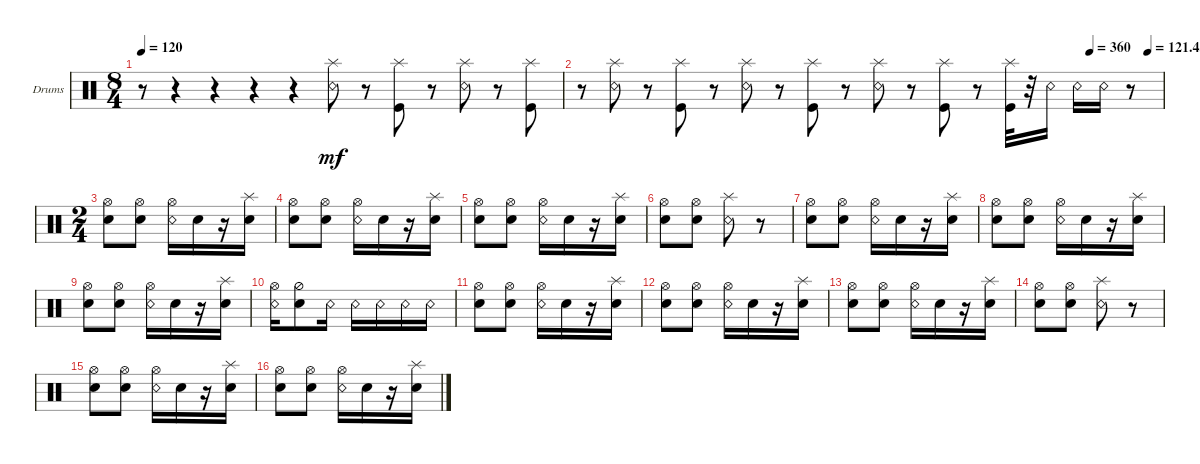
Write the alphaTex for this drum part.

\bracketExtendMode groupsimilarinstruments
\firstSystemTrackNameOrientation horizontal
\otherSystemsTrackNameOrientation horizontal
\track ("Drumkit" "Drums") {instrument percussion}
\staff {score}
\articulation defaults
\ts (8 4)
\tempo 120
\clef neutral
\ks c
r.8{dy mf} r.4 r.4 r.4 r.4 ("Snare (rim shot)" "Splash (hit)").8 r.8 ("Splash (hit)" "Kick (hit)").8 r.8 ("Splash (hit)" "Snare (rim shot)").8 r.8 ("Kick (hit)" "Splash (hit)").8 |
\tempo (360 0.875)
\tempo (121.435 0.975)
r.8 ("Splash (hit)" "Snare (rim shot)").8 r.8 ("Splash (hit)" "Kick (hit)").8 r.8 ("Splash (hit)" "Snare (rim shot)").8 r.8 ("Splash (hit)" "Kick (hit)").8 r.8 ("Splash (hit)" "Snare (rim shot)").8 r.8 ("Splash (hit)" "Kick (hit)").8 r.8 ("Splash (hit)" "Kick (hit)").32 r.32 "Snare (rim shot)".16 "Snare (rim shot)".16 "Snare (rim shot)".16 r.8 |
\ts (2 4)
("Snare (hit) 2" "Hi-Hat (open)").8 ("Snare (hit) 2" "Hi-Hat (open)").8 ("Snare (rim shot)" "Hi-Hat (open)").16 "Snare (hit) 2".16 r.16 ("Snare (hit) 2" "Splash (hit)").16 |
("Snare (hit) 2" "Hi-Hat (open)").8 ("Snare (hit) 2" "Hi-Hat (open)").8 ("Snare (rim shot)" "Hi-Hat (open)").16 "Snare (hit) 2".16 r.16 ("Snare (hit) 2" "Splash (hit)").16 |
("Snare (hit) 2" "Hi-Hat (open)").8 ("Snare (hit) 2" "Hi-Hat (open)").8 ("Snare (rim shot)" "Hi-Hat (open)").16 "Snare (hit) 2".16 r.16 ("Snare (hit) 2" "Splash (hit)").16 |
("Snare (hit) 2" "Hi-Hat (open)").8 ("Snare (hit) 2" "Hi-Hat (open)").8 ("Snare (rim shot)" "Splash (hit)").8 r.8 |
("Snare (hit) 2" "Hi-Hat (open)").8 ("Snare (hit) 2" "Hi-Hat (open)").8 ("Snare (rim shot)" "Hi-Hat (open)").16 "Snare (hit) 2".16 r.16 ("Snare (hit) 2" "Splash (hit)").16 |
("Snare (hit) 2" "Hi-Hat (open)").8 ("Snare (hit) 2" "Hi-Hat (open)").8 ("Snare (rim shot)" "Hi-Hat (open)").16 "Snare (hit) 2".16 r.16 ("Snare (hit) 2" "Splash (hit)").16 |
("Snare (hit) 2" "Hi-Hat (open)").8 ("Snare (hit) 2" "Hi-Hat (open)").8 ("Snare (rim shot)" "Hi-Hat (open)").16 "Snare (hit) 2".16 r.16 ("Snare (hit) 2" "Splash (hit)").16 |
("Snare (rim shot)" "Hi-Hat (open)").16 ("Snare (hit) 2" "Hi-Hat (half)").8 "Snare (rim shot)".16 "Snare (rim shot)".16 "Snare (rim shot)".16 "Snare (rim shot)".16 "Snare (rim shot)".16 |
("Snare (hit) 2" "Hi-Hat (open)").8 ("Snare (hit) 2" "Hi-Hat (open)").8 ("Snare (rim shot)" "Hi-Hat (open)").16 "Snare (hit) 2".16 r.16 ("Snare (hit) 2" "Splash (hit)").16 |
("Snare (hit) 2" "Hi-Hat (open)").8 ("Snare (hit) 2" "Hi-Hat (open)").8 ("Snare (rim shot)" "Hi-Hat (open)").16 "Snare (hit) 2".16 r.16 ("Snare (hit) 2" "Splash (hit)").16 |
("Snare (hit) 2" "Hi-Hat (open)").8 ("Snare (hit) 2" "Hi-Hat (open)").8 ("Snare (rim shot)" "Hi-Hat (open)").16 "Snare (hit) 2".16 r.16 ("Snare (hit) 2" "Splash (hit)").16 |
("Snare (hit) 2" "Hi-Hat (open)").8 ("Snare (hit) 2" "Hi-Hat (open)").8 ("Snare (rim shot)" "Splash (hit)").8 r.8 |
("Snare (hit) 2" "Hi-Hat (open)").8 ("Snare (hit) 2" "Hi-Hat (open)").8 ("Snare (rim shot)" "Hi-Hat (open)").16 "Snare (hit) 2".16 r.16 ("Snare (hit) 2" "Splash (hit)").16 |
("Snare (hit) 2" "Hi-Hat (open)").8 ("Snare (hit) 2" "Hi-Hat (open)").8 ("Snare (rim shot)" "Hi-Hat (open)").16 "Snare (hit) 2".16 r.16 ("Snare (hit) 2" "Splash (hit)").16
